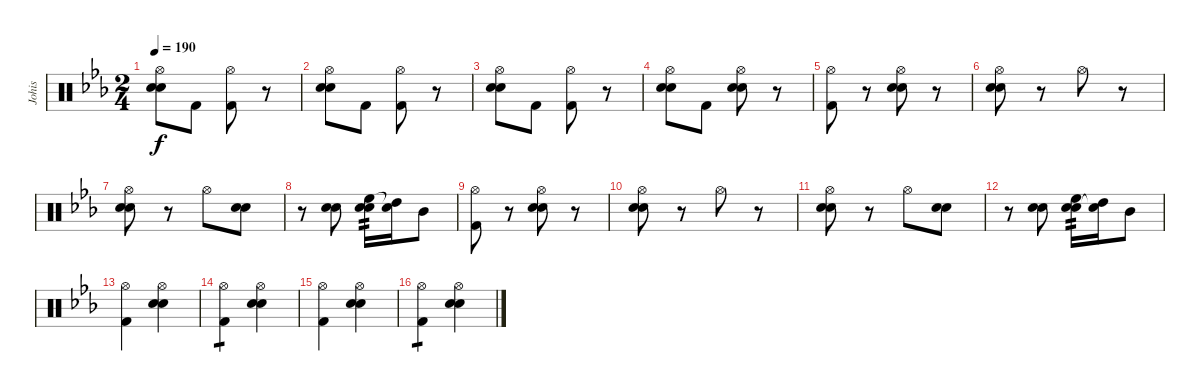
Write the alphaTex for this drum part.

\track ("Johis" "Johis") {instrument percussion}
\staff {score}
\articulation defaults
\ts (2 4)
\tempo 190
\clef neutral
\ks eb
("Hi-Hat (open)" "Snare (hit) 2" "Electric Snare (hit)").8{dy f} "Kick (hit) 2".8 ("Hi-Hat (open)" "Kick (hit) 2").8 r.8 |
("Hi-Hat (open)" "Snare (hit) 2" "Electric Snare (hit)").8 "Kick (hit) 2".8 ("Hi-Hat (open)" "Kick (hit) 2").8 r.8 |
("Hi-Hat (open)" "Snare (hit) 2" "Electric Snare (hit)").8 "Kick (hit) 2".8 ("Hi-Hat (open)" "Kick (hit) 2").8 r.8 |
("Hi-Hat (open)" "Snare (hit) 2" "Electric Snare (hit)").8 "Kick (hit) 2".8 ("Hi-Hat (open)" "Snare (hit) 2" "Electric Snare (hit)").8 r.8 |
("Hi-Hat (open)" "Kick (hit) 2").8 r.8 ("Hi-Hat (open)" "Snare (hit) 2" "Electric Snare (hit)").8 r.8 |
("Hi-Hat (open)" "Snare (hit) 2" "Electric Snare (hit)").8 r.8 "Hi-Hat (open)".8 r.8 |
("Hi-Hat (open)" "Snare (hit) 2" "Electric Snare (hit)").8 r.8 "Hi-Hat (open)".8 ("Snare (hit) 2" "Electric Snare (hit)").8 |
r.8 ("Electric Snare (hit)" "Snare (hit) 2").8 ("Electric Snare (hit)" "High Floor Tom (hit)" "Snare (hit) 2").16{tp 2} ("High Tom (hit)" "Snare (hit) 2"{t}).16 "Mid Tom (hit)".8 |
("Hi-Hat (open)" "Kick (hit) 2").8 r.8 ("Hi-Hat (open)" "Snare (hit) 2" "Electric Snare (hit)").8 r.8 |
("Hi-Hat (open)" "Snare (hit) 2" "Electric Snare (hit)").8 r.8 "Hi-Hat (open)".8 r.8 |
("Hi-Hat (open)" "Snare (hit) 2" "Electric Snare (hit)").8 r.8 "Hi-Hat (open)".8 ("Snare (hit) 2" "Electric Snare (hit)").8 |
r.8 ("Snare (hit) 2" "Electric Snare (hit)").8 ("High Floor Tom (hit)" "Snare (hit) 2" "Electric Snare (hit)").16{tp 2} ("High Tom (hit)" "Snare (hit) 2"{t}).16 "Mid Tom (hit)".8 |
("Hi-Hat (open)" "Kick (hit) 2").4 ("Hi-Hat (open)" "Electric Snare (hit)" "Snare (hit) 2").4 |
("Hi-Hat (open)" "Kick (hit) 2").4{tp 1} ("Hi-Hat (open)" "Electric Snare (hit)" "Snare (hit) 2").4 |
("Hi-Hat (open)" "Kick (hit) 2").4 ("Hi-Hat (open)" "Electric Snare (hit)" "Snare (hit) 2").4 |
("Hi-Hat (open)" "Kick (hit) 2").4{tp 1} ("Hi-Hat (open)" "Electric Snare (hit)" "Snare (hit) 2").4
